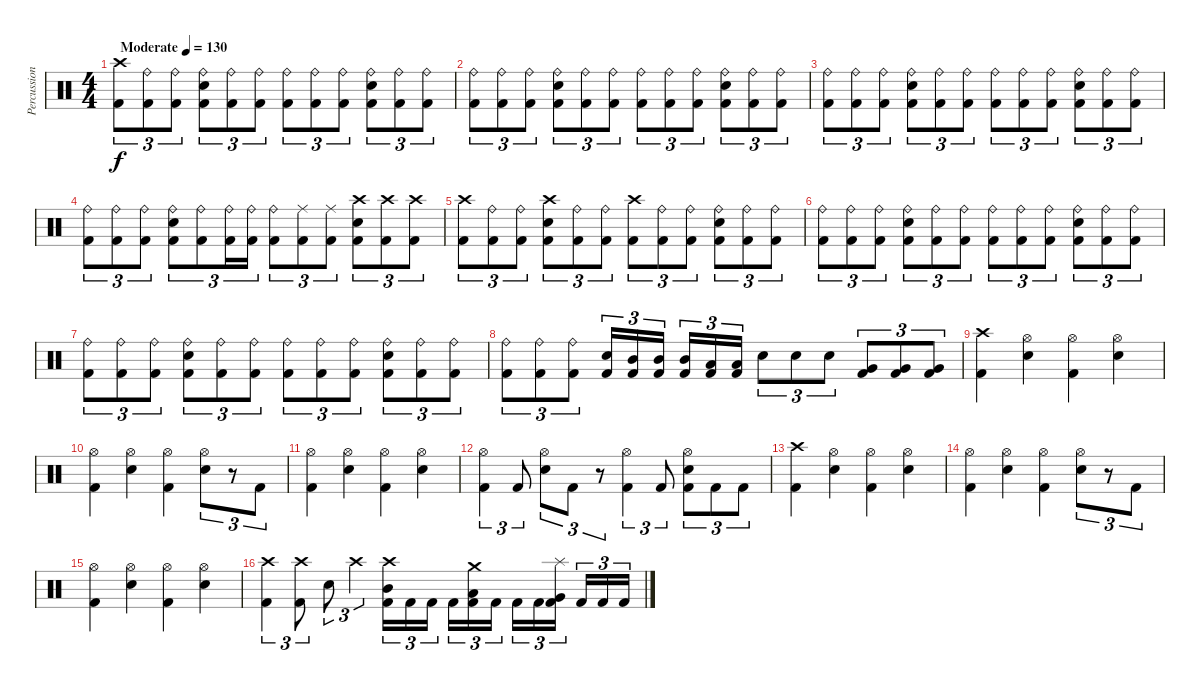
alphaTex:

\track ("Percussion" "Percussion") {instrument percussion}
\staff {score}
\articulation defaults
\ts (4 4)
\tempo (130 "Moderate")
\clef neutral
\ks c
("Crash high (hit)" "Kick (hit) 2").8{tu (3 2) dy f} ("Ride (bell)" "Kick (hit) 2").8{tu (3 2)} ("Ride (bell)" "Kick (hit) 2").8{tu (3 2)} ("Ride (bell)" "Electric Snare (hit)" "Kick (hit) 2").8{tu (3 2)} ("Ride (bell)" "Kick (hit) 2").8{tu (3 2)} ("Ride (bell)" "Kick (hit) 2").8{tu (3 2)} ("Ride (bell)" "Kick (hit) 2").8{tu (3 2)} ("Ride (bell)" "Kick (hit) 2").8{tu (3 2)} ("Ride (bell)" "Kick (hit) 2").8{tu (3 2)} ("Ride (bell)" "Electric Snare (hit)" "Kick (hit) 2").8{tu (3 2)} ("Ride (bell)" "Kick (hit) 2").8{tu (3 2)} ("Ride (bell)" "Kick (hit) 2").8{tu (3 2)} |
("Ride (bell)" "Kick (hit) 2").8{tu (3 2)} ("Ride (bell)" "Kick (hit) 2").8{tu (3 2)} ("Ride (bell)" "Kick (hit) 2").8{tu (3 2)} ("Ride (bell)" "Electric Snare (hit)" "Kick (hit) 2").8{tu (3 2)} ("Ride (bell)" "Kick (hit) 2").8{tu (3 2)} ("Ride (bell)" "Kick (hit) 2").8{tu (3 2)} ("Ride (bell)" "Kick (hit) 2").8{tu (3 2)} ("Ride (bell)" "Kick (hit) 2").8{tu (3 2)} ("Ride (bell)" "Kick (hit) 2").8{tu (3 2)} ("Ride (bell)" "Electric Snare (hit)" "Kick (hit) 2").8{tu (3 2)} ("Ride (bell)" "Kick (hit) 2").8{tu (3 2)} ("Ride (bell)" "Kick (hit) 2").8{tu (3 2)} |
("Ride (bell)" "Kick (hit) 2").8{tu (3 2)} ("Ride (bell)" "Kick (hit) 2").8{tu (3 2)} ("Ride (bell)" "Kick (hit) 2").8{tu (3 2)} ("Ride (bell)" "Electric Snare (hit)" "Kick (hit) 2").8{tu (3 2)} ("Ride (bell)" "Kick (hit) 2").8{tu (3 2)} ("Ride (bell)" "Kick (hit) 2").8{tu (3 2)} ("Ride (bell)" "Kick (hit) 2").8{tu (3 2)} ("Ride (bell)" "Kick (hit) 2").8{tu (3 2)} ("Ride (bell)" "Kick (hit) 2").8{tu (3 2)} ("Ride (bell)" "Electric Snare (hit)" "Kick (hit) 2").8{tu (3 2)} ("Ride (bell)" "Kick (hit) 2").8{tu (3 2)} ("Ride (bell)" "Kick (hit) 2").8{tu (3 2)} |
("Ride (bell)" "Kick (hit) 2").8{tu (3 2)} ("Ride (bell)" "Kick (hit) 2").8{tu (3 2)} ("Ride (bell)" "Kick (hit) 2").8{tu (3 2)} ("Ride (bell)" "Electric Snare (hit)" "Kick (hit) 2").8{tu (3 2)} ("Ride (bell)" "Kick (hit) 2").8{tu (3 2)} ("Ride (bell)" "Kick (hit) 2").16{tu (3 2)} ("Ride (bell)" "Kick (hit) 2").16{tu (3 2)} ("Ride (bell)" "Kick (hit) 2").8{tu (3 2)} ("Ride (middle)" "Kick (hit) 2").8{tu (3 2)} ("Ride (middle)" "Kick (hit) 2").8{tu (3 2)} ("Crash high (hit)" "Electric Snare (hit)" "Kick (hit) 2").8{tu (3 2)} ("Crash high (hit)" "Kick (hit) 2").8{tu (3 2)} ("Crash high (hit)" "Kick (hit) 2").8{tu (3 2)} |
("Crash high (hit)" "Kick (hit) 2").8{tu (3 2)} ("Ride (bell)" "Kick (hit) 2").8{tu (3 2)} ("Ride (bell)" "Kick (hit) 2").8{tu (3 2)} ("Crash high (hit)" "Electric Snare (hit)" "Kick (hit) 2").8{tu (3 2)} ("Ride (bell)" "Kick (hit) 2").8{tu (3 2)} ("Ride (bell)" "Kick (hit) 2").8{tu (3 2)} ("Crash high (hit)" "Kick (hit) 2").8{tu (3 2)} ("Ride (bell)" "Kick (hit) 2").8{tu (3 2)} ("Ride (bell)" "Kick (hit) 2").8{tu (3 2)} ("Ride (bell)" "Electric Snare (hit)" "Kick (hit) 2").8{tu (3 2)} ("Ride (bell)" "Kick (hit) 2").8{tu (3 2)} ("Ride (bell)" "Kick (hit) 2").8{tu (3 2)} |
("Ride (bell)" "Kick (hit) 2").8{tu (3 2)} ("Ride (bell)" "Kick (hit) 2").8{tu (3 2)} ("Ride (bell)" "Kick (hit) 2").8{tu (3 2)} ("Ride (bell)" "Electric Snare (hit)" "Kick (hit) 2").8{tu (3 2)} ("Ride (bell)" "Kick (hit) 2").8{tu (3 2)} ("Ride (bell)" "Kick (hit) 2").8{tu (3 2)} ("Ride (bell)" "Kick (hit) 2").8{tu (3 2)} ("Ride (bell)" "Kick (hit) 2").8{tu (3 2)} ("Ride (bell)" "Kick (hit) 2").8{tu (3 2)} ("Ride (bell)" "Electric Snare (hit)" "Kick (hit) 2").8{tu (3 2)} ("Ride (bell)" "Kick (hit) 2").8{tu (3 2)} ("Ride (bell)" "Kick (hit) 2").8{tu (3 2)} |
("Ride (bell)" "Kick (hit) 2").8{tu (3 2)} ("Ride (bell)" "Kick (hit) 2").8{tu (3 2)} ("Ride (bell)" "Kick (hit) 2").8{tu (3 2)} ("Ride (bell)" "Electric Snare (hit)" "Kick (hit) 2").8{tu (3 2)} ("Ride (bell)" "Kick (hit) 2").8{tu (3 2)} ("Ride (bell)" "Kick (hit) 2").8{tu (3 2)} ("Ride (bell)" "Kick (hit) 2").8{tu (3 2)} ("Ride (bell)" "Kick (hit) 2").8{tu (3 2)} ("Ride (bell)" "Kick (hit) 2").8{tu (3 2)} ("Ride (bell)" "Electric Snare (hit)" "Kick (hit) 2").8{tu (3 2)} ("Ride (bell)" "Kick (hit) 2").8{tu (3 2)} ("Ride (bell)" "Kick (hit) 2").8{tu (3 2)} |
("Ride (bell)" "Kick (hit) 2").8{tu (3 2)} ("Ride (bell)" "Kick (hit) 2").8{tu (3 2)} ("Ride (bell)" "Kick (hit) 2").8{tu (3 2)} ("Electric Snare (hit)" "Kick (hit) 2").16{tu (3 2)} ("Mid Tom (hit)" "Kick (hit) 2").16{tu (3 2)} ("Mid Tom (hit)" "Kick (hit) 2").16{tu (3 2) beam splitsecondary} ("Mid Tom (hit)" "Kick (hit) 2").16{tu (3 2)} ("Low Tom (hit)" "Kick (hit) 2").16{tu (3 2)} ("Low Tom (hit)" "Kick (hit) 2").16{tu (3 2)} "Electric Snare (hit)".8{tu (3 2)} "Electric Snare (hit)".8{tu (3 2)} "Electric Snare (hit)".8{tu (3 2)} ("Very Low Tom (hit)" "Kick (hit) 2").8{tu (3 2)} ("Very Low Tom (hit)" "Kick (hit) 2").8{tu (3 2)} ("Very Low Tom (hit)" "Kick (hit) 2").8{tu (3 2)} |
("Crash high (hit)" "Kick (hit) 2").4 ("Hi-Hat (open)" "Electric Snare (hit)").4 ("Hi-Hat (open)" "Kick (hit) 2").4 ("Hi-Hat (open)" "Electric Snare (hit)").4 |
("Hi-Hat (open)" "Kick (hit) 2").4 ("Hi-Hat (open)" "Electric Snare (hit)").4 ("Hi-Hat (open)" "Kick (hit) 2").4 ("Hi-Hat (open)" "Electric Snare (hit)").8{tu (3 2)} r.8{tu (3 2)} "Kick (hit) 2".8{tu (3 2)} |
("Hi-Hat (open)" "Kick (hit) 2").4 ("Hi-Hat (open)" "Electric Snare (hit)").4 ("Hi-Hat (open)" "Kick (hit) 2").4 ("Hi-Hat (open)" "Electric Snare (hit)").4 |
("Hi-Hat (open)" "Kick (hit) 2").4{tu (3 2)} "Kick (hit) 2".8{tu (3 2)} ("Hi-Hat (open)" "Electric Snare (hit)").8{tu (3 2)} "Kick (hit) 2".8{tu (3 2)} r.8{tu (3 2)} ("Hi-Hat (open)" "Kick (hit) 2").4{tu (3 2)} "Kick (hit) 2".8{tu (3 2)} ("Hi-Hat (open)" "Electric Snare (hit)" "Kick (hit) 2").8{tu (3 2)} "Kick (hit) 2".8{tu (3 2)} "Kick (hit) 2".8{tu (3 2)} |
("Crash high (hit)" "Kick (hit) 2").4 ("Hi-Hat (open)" "Electric Snare (hit)").4 ("Hi-Hat (open)" "Kick (hit) 2").4 ("Hi-Hat (open)" "Electric Snare (hit)").4 |
("Hi-Hat (open)" "Kick (hit) 2").4 ("Hi-Hat (open)" "Electric Snare (hit)").4 ("Hi-Hat (open)" "Kick (hit) 2").4 ("Hi-Hat (open)" "Electric Snare (hit)").8{tu (3 2)} r.8{tu (3 2)} "Kick (hit) 2".8{tu (3 2)} |
("Hi-Hat (open)" "Kick (hit) 2").4 ("Hi-Hat (open)" "Electric Snare (hit)").4 ("Hi-Hat (open)" "Kick (hit) 2").4 ("Hi-Hat (open)" "Electric Snare (hit)").4 |
("Crash high (hit)" "Kick (hit) 2").4{tu (3 2)} ("Crash high (hit)" "Kick (hit) 2").8{tu (3 2)} "Electric Snare (hit)".8{tu (3 2)} "Crash high (hit)".4{tu (3 2)} ("Crash high (hit)" "Mid Tom (hit)" "Kick (hit) 2").16{tu (3 2)} "Kick (hit) 2".16{tu (3 2)} "Kick (hit) 2".16{tu (3 2) beam splitsecondary} "Kick (hit) 2".16{tu (3 2)} ("Crash medium (hit)" "Low Tom (hit)" "Kick (hit) 2").16{tu (3 2)} "Kick (hit) 2".16{tu (3 2)} "Kick (hit) 2".16{tu (3 2)} "Kick (hit) 2".16{tu (3 2)} ("Splash (hit)" "Very Low Tom (hit)" "Kick (hit) 2").16{tu (3 2) beam splitsecondary} "Kick (hit) 2".16{tu (3 2)} "Kick (hit) 2".16{tu (3 2)} "Kick (hit) 2".16{tu (3 2)}
